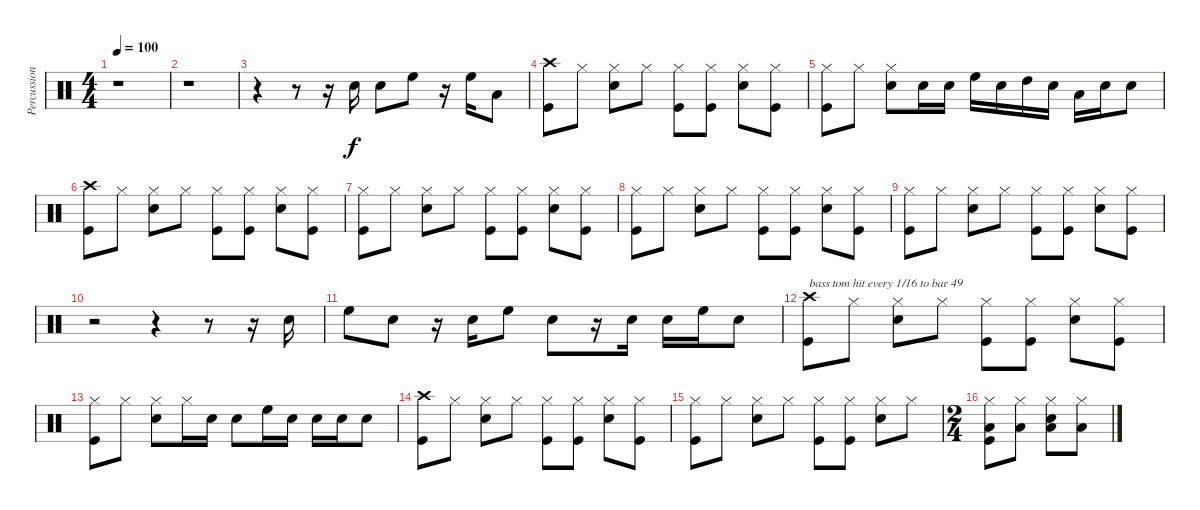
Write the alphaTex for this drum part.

\track ("Percussion" "Percussion") {instrument percussion}
\staff {score}
\articulation defaults
\ts (4 4)
\tempo 100
\clef neutral
\ks c
r.1{dy f} |
r.1 |
r.4 r.8 r.16 "Snare (hit) 2".16 "Snare (hit) 2".8 "High Floor Tom (hit)".8 r.16 "High Floor Tom (hit)".16 "Low Tom (hit)".8 |
("Crash high (hit)" "Kick (hit)").8 "Hi-Hat (closed)".8 ("Hi-Hat (closed)" "Snare (hit) 2").8 "Hi-Hat (closed)".8 ("Hi-Hat (closed)" "Kick (hit)").8 ("Hi-Hat (closed)" "Kick (hit)").8 ("Hi-Hat (closed)" "Snare (hit) 2").8 ("Hi-Hat (closed)" "Kick (hit)").8 |
("Hi-Hat (closed)" "Kick (hit)").8 "Hi-Hat (closed)".8 ("Hi-Hat (closed)" "Snare (hit) 2").8 "Snare (hit) 2".16 "Snare (hit) 2".16 "High Floor Tom (hit)".16 "Snare (hit) 2".16 "High Tom (hit)".16 "Snare (hit) 2".16 "Low Tom (hit)".16 "Snare (hit) 2".16 "Snare (hit) 2".8 |
("Crash high (hit)" "Kick (hit)").8 "Hi-Hat (closed)".8 ("Hi-Hat (closed)" "Snare (hit) 2").8 "Hi-Hat (closed)".8 ("Hi-Hat (closed)" "Kick (hit)").8 ("Hi-Hat (closed)" "Kick (hit)").8 ("Hi-Hat (closed)" "Snare (hit) 2").8 ("Hi-Hat (closed)" "Kick (hit)").8 |
("Hi-Hat (closed)" "Kick (hit)").8 "Hi-Hat (closed)".8 ("Hi-Hat (closed)" "Snare (hit) 2").8 "Hi-Hat (closed)".8 ("Hi-Hat (closed)" "Kick (hit)").8 ("Hi-Hat (closed)" "Kick (hit)").8 ("Hi-Hat (closed)" "Snare (hit) 2").8 ("Hi-Hat (closed)" "Kick (hit)").8 |
("Hi-Hat (closed)" "Kick (hit)").8 "Hi-Hat (closed)".8 ("Hi-Hat (closed)" "Snare (hit) 2").8 "Hi-Hat (closed)".8 ("Hi-Hat (closed)" "Kick (hit)").8 ("Hi-Hat (closed)" "Kick (hit)").8 ("Hi-Hat (closed)" "Snare (hit) 2").8 ("Hi-Hat (closed)" "Kick (hit)").8 |
("Hi-Hat (closed)" "Kick (hit)").8 "Hi-Hat (closed)".8 ("Hi-Hat (closed)" "Snare (hit) 2").8 "Hi-Hat (closed)".8 ("Hi-Hat (closed)" "Kick (hit)").8 ("Hi-Hat (closed)" "Kick (hit)").8 ("Hi-Hat (closed)" "Snare (hit) 2").8 ("Hi-Hat (closed)" "Kick (hit)").8 |
r.2 r.4 r.8 r.16 "Snare (hit) 2".16 |
"High Floor Tom (hit)".8 "Snare (hit) 2".8 r.16 "Snare (hit) 2".16 "High Floor Tom (hit)".8 "Snare (hit) 2".8 r.16 "Snare (hit) 2".16 "Snare (hit) 2".16 "High Floor Tom (hit)".16 "Snare (hit) 2".8 |
("Crash high (hit)" "Kick (hit)").8{txt "bass tom hit every 1/16 to bar 49"} "Hi-Hat (closed)".8 ("Hi-Hat (closed)" "Snare (hit) 2").8 "Hi-Hat (closed)".8 ("Hi-Hat (closed)" "Kick (hit)").8 ("Hi-Hat (closed)" "Kick (hit)").8 ("Hi-Hat (closed)" "Snare (hit) 2").8 ("Hi-Hat (closed)" "Kick (hit)").8 |
("Hi-Hat (closed)" "Kick (hit)").8 "Hi-Hat (closed)".8 ("Hi-Hat (closed)" "Snare (hit) 2").8 "Hi-Hat (closed)".16 "Snare (hit) 2".16 "Snare (hit) 2".8 "High Floor Tom (hit)".16 "Snare (hit) 2".16 "Snare (hit) 2".16 "Snare (hit) 2".16 "Snare (hit) 2".8 |
("Crash high (hit)" "Kick (hit)").8 "Hi-Hat (closed)".8 ("Hi-Hat (closed)" "Snare (hit) 2").8 "Hi-Hat (closed)".8 ("Hi-Hat (closed)" "Kick (hit)").8 ("Hi-Hat (closed)" "Kick (hit)").8 ("Hi-Hat (closed)" "Snare (hit) 2").8 ("Hi-Hat (closed)" "Kick (hit)").8 |
("Hi-Hat (closed)" "Kick (hit)").8 "Hi-Hat (closed)".8 ("Hi-Hat (closed)" "Snare (hit) 2").8 "Hi-Hat (closed)".8 ("Hi-Hat (closed)" "Kick (hit)").8 ("Hi-Hat (closed)" "Kick (hit)").8 ("Hi-Hat (closed)" "Snare (hit) 2").8 "Hi-Hat (closed)".8 |
\ts (2 4)
("Hi-Hat (closed)" "Low Floor Tom (hit)" "Kick (hit)").8 ("Hi-Hat (closed)" "Low Floor Tom (hit)").8 ("Hi-Hat (closed)" "Snare (hit) 2" "Low Floor Tom (hit)").8 ("Hi-Hat (closed)" "Low Floor Tom (hit)").8
